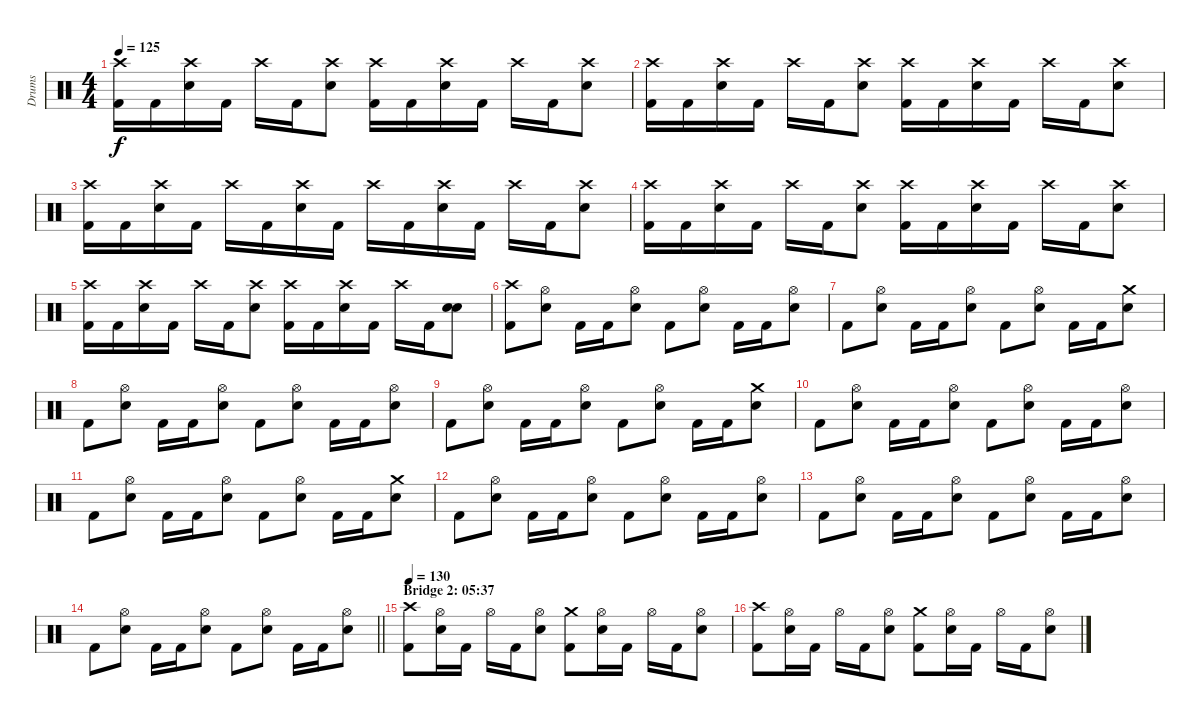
\track ("Drums" "Drums") {instrument percussion}
\staff {score}
\articulation defaults
\ts (4 4)
\tempo 125
\clef neutral
\ks c
("Crash high (hit)" "Kick (hit) 2").16{dy f} "Kick (hit) 2".16 ("Crash high (hit)" "Electric Snare (hit)").16 "Kick (hit) 2".16 "Crash high (hit)".16 "Kick (hit) 2".16 ("Crash high (hit)" "Electric Snare (hit)").8 ("Crash high (hit)" "Kick (hit) 2").16 "Kick (hit) 2".16 ("Crash high (hit)" "Electric Snare (hit)").16 "Kick (hit) 2".16 "Crash high (hit)".16 "Kick (hit) 2".16 ("Crash high (hit)" "Electric Snare (hit)").8 |
("Crash high (hit)" "Kick (hit) 2").16 "Kick (hit) 2".16 ("Crash high (hit)" "Electric Snare (hit)").16 "Kick (hit) 2".16 "Crash high (hit)".16 "Kick (hit) 2".16 ("Crash high (hit)" "Electric Snare (hit)").8 ("Crash high (hit)" "Kick (hit) 2").16 "Kick (hit) 2".16 ("Crash high (hit)" "Electric Snare (hit)").16 "Kick (hit) 2".16 "Crash high (hit)".16 "Kick (hit) 2".16 ("Crash high (hit)" "Electric Snare (hit)").8 |
("Crash high (hit)" "Kick (hit) 2").16 "Kick (hit) 2".16 ("Crash high (hit)" "Electric Snare (hit)").16 "Kick (hit) 2".16 "Crash high (hit)".16 "Kick (hit) 2".16 ("Crash high (hit)" "Electric Snare (hit)").16 "Kick (hit) 2".16 "Crash high (hit)".16 "Kick (hit) 2".16 ("Crash high (hit)" "Electric Snare (hit)").16 "Kick (hit) 2".16 "Crash high (hit)".16 "Kick (hit) 2".16 ("Crash high (hit)" "Electric Snare (hit)").8 |
("Crash high (hit)" "Kick (hit) 2").16 "Kick (hit) 2".16 ("Crash high (hit)" "Electric Snare (hit)").16 "Kick (hit) 2".16 "Crash high (hit)".16 "Kick (hit) 2".16 ("Crash high (hit)" "Electric Snare (hit)").8 ("Crash high (hit)" "Kick (hit) 2").16 "Kick (hit) 2".16 ("Crash high (hit)" "Electric Snare (hit)").16 "Kick (hit) 2".16 "Crash high (hit)".16 "Kick (hit) 2".16 ("Crash high (hit)" "Electric Snare (hit)").8 |
("Crash high (hit)" "Kick (hit) 2").16 "Kick (hit) 2".16 ("Crash high (hit)" "Electric Snare (hit)").16 "Kick (hit) 2".16 "Crash high (hit)".16 "Kick (hit) 2".16 ("Crash high (hit)" "Electric Snare (hit)").8 ("Crash high (hit)" "Kick (hit) 2").16 "Kick (hit) 2".16 ("Crash high (hit)" "Electric Snare (hit)").16 "Kick (hit) 2".16 "Crash high (hit)".16 "Kick (hit) 2".16 ("Electric Snare (hit)" "Electric Snare (hit)").8{bd 120} |
("Crash high (hit)" "Kick (hit) 2").8 ("Hi-Hat (open)" "Electric Snare (hit)").8 "Kick (hit) 2".16 "Kick (hit) 2".16 ("Hi-Hat (open)" "Electric Snare (hit)").8 "Kick (hit) 2".8 ("Hi-Hat (open)" "Electric Snare (hit)").8 "Kick (hit) 2".16 "Kick (hit) 2".16 ("Hi-Hat (open)" "Electric Snare (hit)").8 |
"Kick (hit) 2".8 ("Hi-Hat (open)" "Electric Snare (hit)").8 "Kick (hit) 2".16 "Kick (hit) 2".16 ("Hi-Hat (open)" "Electric Snare (hit)").8 "Kick (hit) 2".8 ("Hi-Hat (open)" "Electric Snare (hit)").8 "Kick (hit) 2".16 "Kick (hit) 2".16 ("Crash medium (hit)" "Electric Snare (hit)").8 |
"Kick (hit) 2".8 ("Hi-Hat (open)" "Electric Snare (hit)").8 "Kick (hit) 2".16 "Kick (hit) 2".16 ("Hi-Hat (open)" "Electric Snare (hit)").8 "Kick (hit) 2".8 ("Hi-Hat (open)" "Electric Snare (hit)").8 "Kick (hit) 2".16 "Kick (hit) 2".16 ("Hi-Hat (open)" "Electric Snare (hit)").8 |
"Kick (hit) 2".8 ("Hi-Hat (open)" "Electric Snare (hit)").8 "Kick (hit) 2".16 "Kick (hit) 2".16 ("Hi-Hat (open)" "Electric Snare (hit)").8 "Kick (hit) 2".8 ("Hi-Hat (open)" "Electric Snare (hit)").8 "Kick (hit) 2".16 "Kick (hit) 2".16 ("Crash medium (hit)" "Electric Snare (hit)").8 |
"Kick (hit) 2".8 ("Hi-Hat (open)" "Electric Snare (hit)").8 "Kick (hit) 2".16 "Kick (hit) 2".16 ("Hi-Hat (open)" "Electric Snare (hit)").8 "Kick (hit) 2".8 ("Hi-Hat (open)" "Electric Snare (hit)").8 "Kick (hit) 2".16 "Kick (hit) 2".16 ("Hi-Hat (open)" "Electric Snare (hit)").8 |
"Kick (hit) 2".8 ("Hi-Hat (open)" "Electric Snare (hit)").8 "Kick (hit) 2".16 "Kick (hit) 2".16 ("Hi-Hat (open)" "Electric Snare (hit)").8 "Kick (hit) 2".8 ("Hi-Hat (open)" "Electric Snare (hit)").8 "Kick (hit) 2".16 "Kick (hit) 2".16 ("Crash medium (hit)" "Electric Snare (hit)").8 |
"Kick (hit) 2".8 ("Hi-Hat (open)" "Electric Snare (hit)").8 "Kick (hit) 2".16 "Kick (hit) 2".16 ("Hi-Hat (open)" "Electric Snare (hit)").8 "Kick (hit) 2".8 ("Hi-Hat (open)" "Electric Snare (hit)").8 "Kick (hit) 2".16 "Kick (hit) 2".16 ("Hi-Hat (open)" "Electric Snare (hit)").8 |
"Kick (hit) 2".8 ("Hi-Hat (open)" "Electric Snare (hit)").8 "Kick (hit) 2".16 "Kick (hit) 2".16 ("Hi-Hat (open)" "Electric Snare (hit)").8 "Kick (hit) 2".8 ("Hi-Hat (open)" "Electric Snare (hit)").8 "Kick (hit) 2".16 "Kick (hit) 2".16 ("Hi-Hat (open)" "Electric Snare (hit)").8 |
\barLineRight lightlight "Kick (hit) 2".8
("Hi-Hat (open)" "Electric Snare (hit)").8 "Kick (hit) 2".16 "Kick (hit) 2".16 ("Hi-Hat (open)" "Electric Snare (hit)").8 "Kick (hit) 2".8 ("Hi-Hat (open)" "Electric Snare (hit)").8 "Kick (hit) 2".16 "Kick (hit) 2".16 ("Hi-Hat (open)" "Electric Snare (hit)").8 |
\section ("" "Bridge 2: 05:37")
\tempo 130
("Crash high (hit)" "Kick (hit) 2").8 ("Hi-Hat (open)" "Electric Snare (hit)").16 "Kick (hit) 2".16 "Hi-Hat (open)".16 "Kick (hit) 2".16 ("Hi-Hat (open)" "Electric Snare (hit)").8 ("Crash medium (hit)" "Kick (hit) 2").8 ("Hi-Hat (open)" "Electric Snare (hit)").16 "Kick (hit) 2".16 "Hi-Hat (open)".16 "Kick (hit) 2".16 ("Hi-Hat (open)" "Electric Snare (hit)").8 |
("Crash high (hit)" "Kick (hit) 2").8 ("Hi-Hat (open)" "Electric Snare (hit)").16 "Kick (hit) 2".16 "Hi-Hat (open)".16 "Kick (hit) 2".16 ("Hi-Hat (open)" "Electric Snare (hit)").8 ("Crash medium (hit)" "Kick (hit) 2").8 ("Hi-Hat (open)" "Electric Snare (hit)").16 "Kick (hit) 2".16 "Hi-Hat (open)".16 "Kick (hit) 2".16 ("Hi-Hat (open)" "Electric Snare (hit)").8
